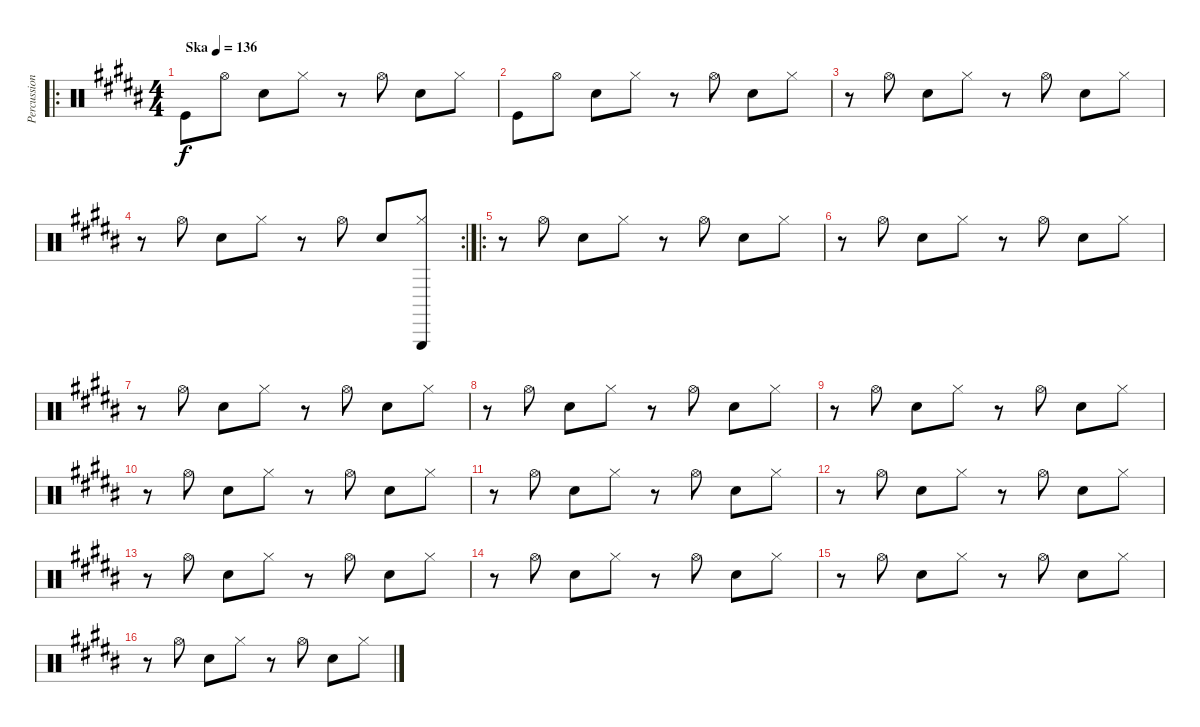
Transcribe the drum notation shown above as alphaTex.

\track ("Percussion" "Percussion") {instrument percussion}
\staff {score}
\articulation defaults
\ro
\ts (4 4)
\tempo (136 "Ska")
\clef neutral
\ks g#minor "Kick (hit)".8{dy f} "Hi-Hat (open)".8 "Snare (hit) 2".8 "Hi-Hat (closed)".8
r.8 "Hi-Hat (open)".8 "Snare (hit) 2".8 "Hi-Hat (closed)".8 |
"Kick (hit)".8 "Hi-Hat (open)".8 "Snare (hit) 2".8 "Hi-Hat (closed)".8 r.8 "Hi-Hat (open)".8 "Snare (hit) 2".8 "Hi-Hat (closed)".8 |
r.8 "Hi-Hat (open)".8 "Snare (hit) 2".8 "Hi-Hat (closed)".8 r.8 "Hi-Hat (open)".8 "Snare (hit) 2".8 "Hi-Hat (closed)".8 |
\rc 2
r.8 "Hi-Hat (open)".8 "Snare (hit) 2".8 "Hi-Hat (closed)".8 r.8 "Hi-Hat (open)".8 "Snare (hit) 2".8 ("Hi-Hat (closed)" "Triangle (hit)").8 |
\ro
r.8 "Hi-Hat (open)".8 "Snare (hit) 2".8 "Hi-Hat (closed)".8 r.8 "Hi-Hat (open)".8 "Snare (hit) 2".8 "Hi-Hat (closed)".8 |
r.8 "Hi-Hat (open)".8 "Snare (hit) 2".8 "Hi-Hat (closed)".8 r.8 "Hi-Hat (open)".8 "Snare (hit) 2".8 "Hi-Hat (closed)".8 |
r.8 "Hi-Hat (open)".8 "Snare (hit) 2".8 "Hi-Hat (closed)".8 r.8 "Hi-Hat (open)".8 "Snare (hit) 2".8 "Hi-Hat (closed)".8 |
r.8 "Hi-Hat (open)".8 "Snare (hit) 2".8 "Hi-Hat (closed)".8 r.8 "Hi-Hat (open)".8 "Snare (hit) 2".8 "Hi-Hat (closed)".8 |
r.8 "Hi-Hat (open)".8 "Snare (hit) 2".8 "Hi-Hat (closed)".8 r.8 "Hi-Hat (open)".8 "Snare (hit) 2".8 "Hi-Hat (closed)".8 |
r.8 "Hi-Hat (open)".8 "Snare (hit) 2".8 "Hi-Hat (closed)".8 r.8 "Hi-Hat (open)".8 "Snare (hit) 2".8 "Hi-Hat (closed)".8 |
r.8 "Hi-Hat (open)".8 "Snare (hit) 2".8 "Hi-Hat (closed)".8 r.8 "Hi-Hat (open)".8 "Snare (hit) 2".8 "Hi-Hat (closed)".8 |
r.8 "Hi-Hat (open)".8 "Snare (hit) 2".8 "Hi-Hat (closed)".8 r.8 "Hi-Hat (open)".8 "Snare (hit) 2".8 "Hi-Hat (closed)".8 |
r.8 "Hi-Hat (open)".8 "Snare (hit) 2".8 "Hi-Hat (closed)".8 r.8 "Hi-Hat (open)".8 "Snare (hit) 2".8 "Hi-Hat (closed)".8 |
r.8 "Hi-Hat (open)".8 "Snare (hit) 2".8 "Hi-Hat (closed)".8 r.8 "Hi-Hat (open)".8 "Snare (hit) 2".8 "Hi-Hat (closed)".8 |
r.8 "Hi-Hat (open)".8 "Snare (hit) 2".8 "Hi-Hat (closed)".8 r.8 "Hi-Hat (open)".8 "Snare (hit) 2".8 "Hi-Hat (closed)".8 |
r.8 "Hi-Hat (open)".8 "Snare (hit) 2".8 "Hi-Hat (closed)".8 r.8 "Hi-Hat (open)".8 "Snare (hit) 2".8 "Hi-Hat (closed)".8
